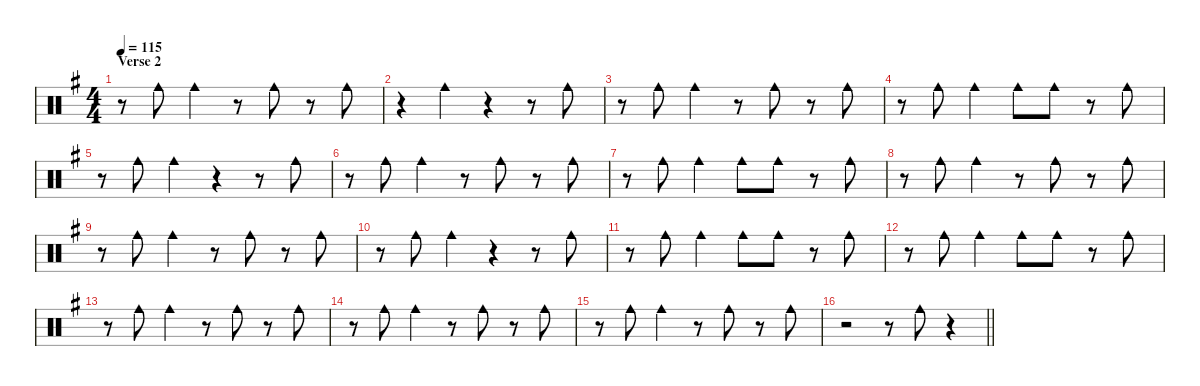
\defaultSystemsLayout 8
\hideDynamics
\bracketExtendMode nobrackets
\singleTrackTrackNamePolicy hidden
\multiTrackTrackNamePolicy hidden
\otherSystemsTrackNameOrientation horizontal
\track ("Cowbell" "drm.") {defaultSystemsLayout 8 instrument percussion}
\staff {score}
\articulation defaults
\ts (4 4)
\section ("" "Verse 2")
\tempo 115
\clef neutral
\ks g
r.8{dy f beam Down} "Cowbell medium (hit)"{acc forcenatural}.8{beam Down} "Cowbell medium (hit)"{acc forcenatural}.4{beam Down} r.8{beam Down} "Cowbell medium (hit)"{acc forcenatural}.8{beam Down} r.8{beam Down} "Cowbell medium (hit)"{acc forcenatural}.8{beam Down} |
r.4{beam Down} "Cowbell medium (hit)"{acc forcenatural}.4{beam Down} r.4{beam Down} r.8{beam Down} "Cowbell medium (hit)"{acc forcenatural}.8{beam Down} |
r.8{beam Down} "Cowbell medium (hit)"{acc forcenatural}.8{beam Down} "Cowbell medium (hit)"{acc forcenatural}.4{beam Down} r.8{beam Down} "Cowbell medium (hit)"{acc forcenatural}.8{beam Down} r.8{beam Down} "Cowbell medium (hit)"{acc forcenatural}.8{beam Down} |
r.8{beam Down} "Cowbell medium (hit)"{acc forcenatural}.8{beam Down} "Cowbell medium (hit)"{acc forcenatural}.4{beam Down} "Cowbell medium (hit)"{acc forcenatural}.8{beam Down} "Cowbell medium (hit)"{acc forcenatural}.8{beam Down} r.8{beam Down} "Cowbell medium (hit)"{acc forcenatural}.8{beam Down} |
r.8{beam Down} "Cowbell medium (hit)"{acc forcenatural}.8{beam Down} "Cowbell medium (hit)"{acc forcenatural}.4{beam Down} r.4{beam Down} r.8{beam Down} "Cowbell medium (hit)"{acc forcenatural}.8{beam Down} |
r.8{beam Down} "Cowbell medium (hit)"{acc forcenatural}.8{beam Down} "Cowbell medium (hit)"{acc forcenatural}.4{beam Down} r.8{beam Down} "Cowbell medium (hit)"{acc forcenatural}.8{beam Down} r.8{beam Down} "Cowbell medium (hit)"{acc forcenatural}.8{beam Down} |
r.8{beam Down} "Cowbell medium (hit)"{acc forcenatural}.8{beam Down} "Cowbell medium (hit)"{acc forcenatural}.4{beam Down} "Cowbell medium (hit)"{acc forcenatural}.8{beam Down} "Cowbell medium (hit)"{acc forcenatural}.8{beam Down} r.8{beam Down} "Cowbell medium (hit)"{acc forcenatural}.8{beam Down} |
r.8{beam Down} "Cowbell medium (hit)"{acc forcenatural}.8{beam Down} "Cowbell medium (hit)"{acc forcenatural}.4{beam Down} r.8{beam Down} "Cowbell medium (hit)"{acc forcenatural}.8{beam Down} r.8{beam Down} "Cowbell medium (hit)"{acc forcenatural}.8{beam Down} |
r.8{beam Down} "Cowbell medium (hit)"{acc forcenatural}.8{beam Down} "Cowbell medium (hit)"{acc forcenatural}.4{beam Down} r.8{beam Down} "Cowbell medium (hit)"{acc forcenatural}.8{beam Down} r.8{beam Down} "Cowbell medium (hit)"{acc forcenatural}.8{beam Down} |
r.8{beam Down} "Cowbell medium (hit)"{acc forcenatural}.8{beam Down} "Cowbell medium (hit)"{acc forcenatural}.4{beam Down} r.4{beam Down} r.8{beam Down} "Cowbell medium (hit)"{acc forcenatural}.8{beam Down} |
r.8{beam Down} "Cowbell medium (hit)"{acc forcenatural}.8{beam Down} "Cowbell medium (hit)"{acc forcenatural}.4{beam Down} "Cowbell medium (hit)"{acc forcenatural}.8{beam Down} "Cowbell medium (hit)"{acc forcenatural}.8{beam Down} r.8{beam Down} "Cowbell medium (hit)"{acc forcenatural}.8{beam Down} |
r.8{beam Down} "Cowbell medium (hit)"{acc forcenatural}.8{beam Down} "Cowbell medium (hit)"{acc forcenatural}.4{beam Down} "Cowbell medium (hit)"{acc forcenatural}.8{beam Down} "Cowbell medium (hit)"{acc forcenatural}.8{beam Down} r.8{beam Down} "Cowbell medium (hit)"{acc forcenatural}.8{beam Down} |
r.8{beam Down} "Cowbell medium (hit)"{acc forcenatural}.8{beam Down} "Cowbell medium (hit)"{acc forcenatural}.4{beam Down} r.8{beam Down} "Cowbell medium (hit)"{acc forcenatural}.8{beam Down} r.8{beam Down} "Cowbell medium (hit)"{acc forcenatural}.8{beam Down} |
r.8{beam Down} "Cowbell medium (hit)"{acc forcenatural}.8{beam Down} "Cowbell medium (hit)"{acc forcenatural}.4{beam Down} r.8{beam Down} "Cowbell medium (hit)"{acc forcenatural}.8{beam Down} r.8{beam Down} "Cowbell medium (hit)"{acc forcenatural}.8{beam Down} |
r.8{beam Down} "Cowbell medium (hit)"{acc forcenatural}.8{beam Down} "Cowbell medium (hit)"{acc forcenatural}.4{beam Down} r.8{beam Down} "Cowbell medium (hit)"{acc forcenatural}.8{beam Down} r.8{beam Down} "Cowbell medium (hit)"{acc forcenatural}.8{beam Down} |
\barLineRight lightlight
r.2{beam Down} r.8{beam Down} "Cowbell medium (hit)"{acc forcenatural}.8{beam Down} r.4{beam Down}
